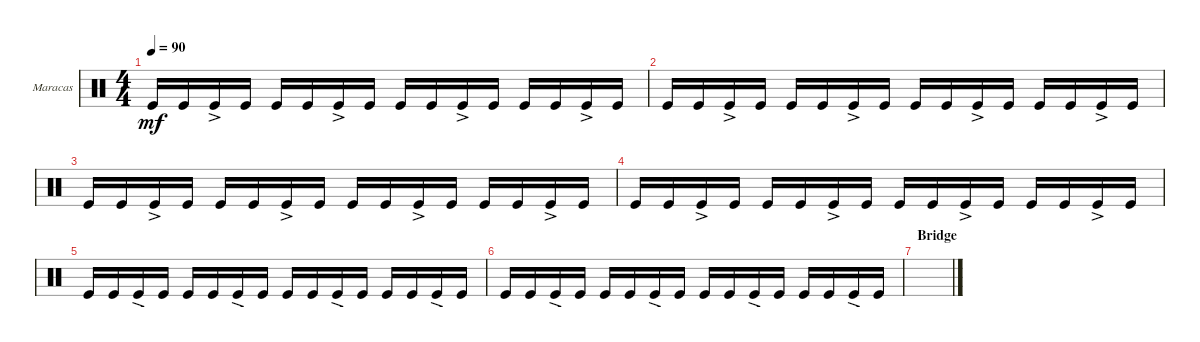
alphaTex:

\defaultSystemsLayout 4
\bracketExtendMode groupsimilarinstruments
\firstSystemTrackNameOrientation horizontal
\otherSystemsTrackNameOrientation horizontal
\track ("Maracas" "Maracas") {instrument percussion}
\staff {score}
\articulation defaults
\ts (4 4)
\tempo 90
\clef neutral
\scale
0.333333
\ks c "Kick (hit)".16{dy mf} "Kick (hit)".16 "Kick (hit)"{ac}.16 "Kick (hit)".16 "Kick (hit)".16 "Kick (hit)".16 "Kick (hit)"{ac}.16 "Kick (hit)".16 "Kick (hit)".16 "Kick (hit)".16 "Kick (hit)"{ac}.16 "Kick (hit)".16 "Kick (hit)".16 "Kick (hit)".16 "Kick (hit)"{ac}.16 "Kick (hit)".16
|
\scale
0.333333 "Kick (hit)".16 "Kick (hit)".16 "Kick (hit)"{ac}.16 "Kick (hit)".16 "Kick (hit)".16 "Kick (hit)".16 "Kick (hit)"{ac}.16 "Kick (hit)".16 "Kick (hit)".16 "Kick (hit)".16 "Kick (hit)"{ac}.16 "Kick (hit)".16 "Kick (hit)".16 "Kick (hit)".16 "Kick (hit)"{ac}.16 "Kick (hit)".16 |
\scale
0.333333 "Kick (hit)".16 "Kick (hit)".16 "Kick (hit)"{ac}.16 "Kick (hit)".16 "Kick (hit)".16 "Kick (hit)".16 "Kick (hit)"{ac}.16 "Kick (hit)".16 "Kick (hit)".16 "Kick (hit)".16 "Kick (hit)"{ac}.16 "Kick (hit)".16 "Kick (hit)".16 "Kick (hit)".16 "Kick (hit)"{ac}.16 "Kick (hit)".16 |
\scale
0.333333 "Kick (hit)".16 "Kick (hit)".16 "Kick (hit)"{ac}.16 "Kick (hit)".16 "Kick (hit)".16 "Kick (hit)".16 "Kick (hit)"{ac}.16 "Kick (hit)".16 "Kick (hit)".16 "Kick (hit)".16 "Kick (hit)"{ac}.16 "Kick (hit)".16 "Kick (hit)".16 "Kick (hit)".16 "Kick (hit)"{ac}.16 "Kick (hit)".16 |
\scale
0.333333 "Kick (hit)".16 "Kick (hit)".16 "Kick (hit)"{ac}.16 "Kick (hit)".16 "Kick (hit)".16 "Kick (hit)".16 "Kick (hit)"{ac}.16 "Kick (hit)".16 "Kick (hit)".16 "Kick (hit)".16 "Kick (hit)"{ac}.16 "Kick (hit)".16 "Kick (hit)".16 "Kick (hit)".16 "Kick (hit)"{ac}.16 "Kick (hit)".16 |
\scale
0.333333 "Kick (hit)".16 "Kick (hit)".16 "Kick (hit)"{ac}.16 "Kick (hit)".16 "Kick (hit)".16 "Kick (hit)".16 "Kick (hit)"{ac}.16 "Kick (hit)".16 "Kick (hit)".16 "Kick (hit)".16 "Kick (hit)"{ac}.16 "Kick (hit)".16 "Kick (hit)".16 "Kick (hit)".16 "Kick (hit)"{ac}.16 "Kick (hit)".16 |
\section ("" "Bridge")
\scale
0.333333 |
\scale
0.333333 |
\scale
0.333333 |
\scale
0.333333 |
\scale
0.333333 |
\scale
0.333333 |
\scale
0.333333 |
\scale
0.333333 |
\scale
0.333333 |
\scale
0.333333
